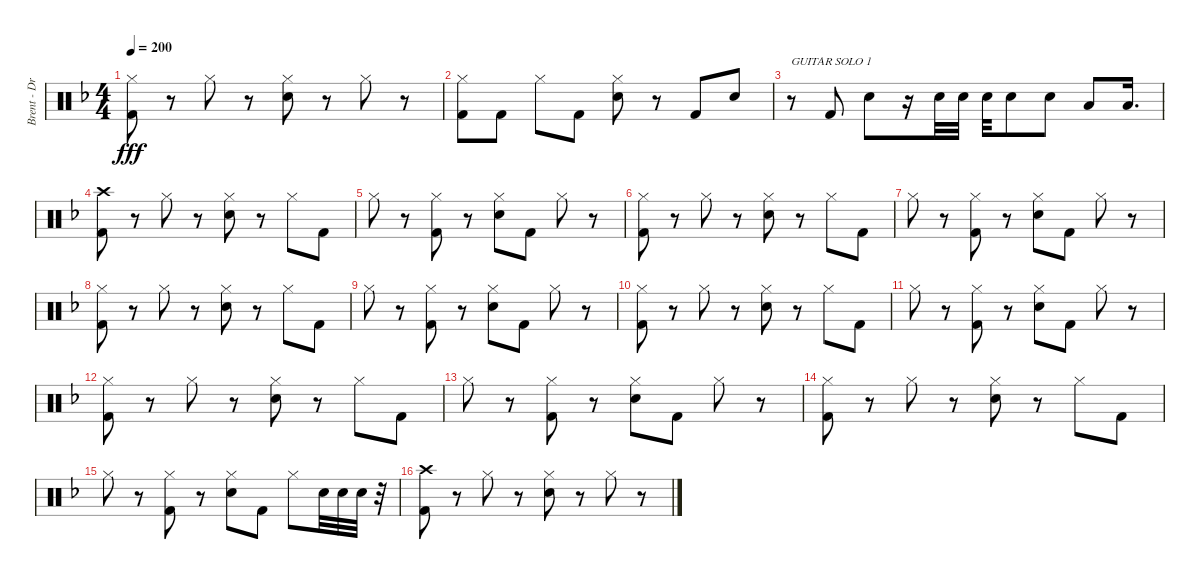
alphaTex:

\track ("Brent - Drums" "Brent - Dr") {instrument percussion}
\staff {score}
\articulation defaults
\ts (4 4)
\tempo 200
\clef neutral
\ks dminor
("Hi-Hat (closed)" "Kick (hit) 2").8{dy fff} r.8 "Hi-Hat (closed)".8 r.8 ("Hi-Hat (closed)" "Snare (hit) 2").8 r.8 "Hi-Hat (closed)".8 r.8 |
("Hi-Hat (closed)" "Kick (hit) 2").8 "Kick (hit) 2".8 "Hi-Hat (closed)".8 "Kick (hit) 2".8 ("Hi-Hat (closed)" "Snare (hit) 2").8 r.8 "Kick (hit) 2".8 "Snare (hit) 2".8 |
r.8{txt "GUITAR SOLO 1"} "Kick (hit) 2".8 "Snare (hit) 2".8 r.16 "Snare (hit) 2".32 "Snare (hit) 2".32 "Snare (hit) 2".32 "Snare (hit) 2".8 "Snare (hit) 2".8 "Low Tom (hit)".8 "Low Tom (hit)".16{d} |
("Crash high (hit)" "Kick (hit) 2").8 r.8 "Hi-Hat (closed)".8 r.8 ("Hi-Hat (closed)" "Snare (hit) 2").8 r.8 "Hi-Hat (closed)".8 "Kick (hit) 2".8 |
"Hi-Hat (closed)".8 r.8 ("Hi-Hat (closed)" "Kick (hit) 2").8 r.8 ("Hi-Hat (closed)" "Snare (hit) 2").8 "Kick (hit) 2".8 "Hi-Hat (closed)".8 r.8 |
("Hi-Hat (closed)" "Kick (hit) 2").8 r.8 "Hi-Hat (closed)".8 r.8 ("Hi-Hat (closed)" "Snare (hit) 2").8 r.8 "Hi-Hat (closed)".8 "Kick (hit) 2".8 |
"Hi-Hat (closed)".8 r.8 ("Hi-Hat (closed)" "Kick (hit) 2").8 r.8 ("Hi-Hat (closed)" "Snare (hit) 2").8 "Kick (hit) 2".8 "Hi-Hat (closed)".8 r.8 |
("Hi-Hat (closed)" "Kick (hit) 2").8 r.8 "Hi-Hat (closed)".8 r.8 ("Hi-Hat (closed)" "Snare (hit) 2").8 r.8 "Hi-Hat (closed)".8 "Kick (hit) 2".8 |
"Hi-Hat (closed)".8 r.8 ("Hi-Hat (closed)" "Kick (hit) 2").8 r.8 ("Hi-Hat (closed)" "Snare (hit) 2").8 "Kick (hit) 2".8 "Hi-Hat (closed)".8 r.8 |
("Hi-Hat (closed)" "Kick (hit) 2").8 r.8 "Hi-Hat (closed)".8 r.8 ("Hi-Hat (closed)" "Snare (hit) 2").8 r.8 "Hi-Hat (closed)".8 "Kick (hit) 2".8 |
"Hi-Hat (closed)".8 r.8 ("Hi-Hat (closed)" "Kick (hit) 2").8 r.8 ("Hi-Hat (closed)" "Snare (hit) 2").8 "Kick (hit) 2".8 "Hi-Hat (closed)".8 r.8 |
("Hi-Hat (closed)" "Kick (hit) 2").8 r.8 "Hi-Hat (closed)".8 r.8 ("Hi-Hat (closed)" "Snare (hit) 2").8 r.8 "Hi-Hat (closed)".8 "Kick (hit) 2".8 |
"Hi-Hat (closed)".8 r.8 ("Hi-Hat (closed)" "Kick (hit) 2").8 r.8 ("Hi-Hat (closed)" "Snare (hit) 2").8 "Kick (hit) 2".8 "Hi-Hat (closed)".8 r.8 |
("Hi-Hat (closed)" "Kick (hit) 2").8 r.8 "Hi-Hat (closed)".8 r.8 ("Hi-Hat (closed)" "Snare (hit) 2").8 r.8 "Hi-Hat (closed)".8 "Kick (hit) 2".8 |
"Hi-Hat (closed)".8 r.8 ("Hi-Hat (closed)" "Kick (hit) 2").8 r.8 ("Hi-Hat (closed)" "Snare (hit) 2").8 "Kick (hit) 2".8 "Hi-Hat (closed)".8 "Snare (hit) 2".32 "Snare (hit) 2".32 "Snare (hit) 2".32 r.32 |
("Crash high (hit)" "Kick (hit) 2").8 r.8 "Hi-Hat (closed)".8 r.8 ("Hi-Hat (closed)" "Snare (hit) 2").8 r.8 "Hi-Hat (closed)".8 r.8
